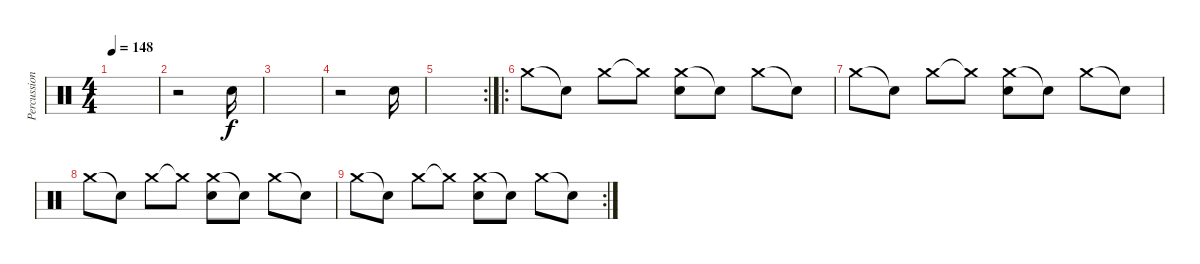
\track ("Percussion" "Percussion") {instrument percussion}
\staff {score}
\articulation defaults
\ts (4 4)
\tempo 148
\clef neutral
\ks c
|
r.2 "Snare (hit) 2".16 |
|
r.2 "Snare (hit) 2".16 |
\rc 2
|
\ro "Crash medium (hit)".8 "Snare (hit)"{t}.8 "Crash medium (hit)".8 "Crash medium (hit)"{t}.8
("Crash medium (hit)" "Snare (hit) 2").8 "Snare (hit)"{t}.8 "Crash medium (hit)".8 "Snare (hit)"{t}.8 |
"Crash medium (hit)".8 "Snare (hit)"{t}.8 "Crash medium (hit)".8 "Crash medium (hit)"{t}.8 ("Crash medium (hit)" "Snare (hit) 2").8 "Snare (hit)"{t}.8 "Crash medium (hit)".8 "Snare (hit)"{t}.8 |
"Crash medium (hit)".8 "Snare (hit)"{t}.8 "Crash medium (hit)".8 "Crash medium (hit)"{t}.8 ("Crash medium (hit)" "Snare (hit) 2").8 "Snare (hit)"{t}.8 "Crash medium (hit)".8 "Snare (hit)"{t}.8 |
\rc 2 "Crash medium (hit)".8 "Snare (hit)"{t}.8 "Crash medium (hit)".8 "Crash medium (hit)"{t}.8
("Crash medium (hit)" "Snare (hit) 2").8 "Snare (hit)"{t}.8 "Crash medium (hit)".8 "Snare (hit)"{t}.8
